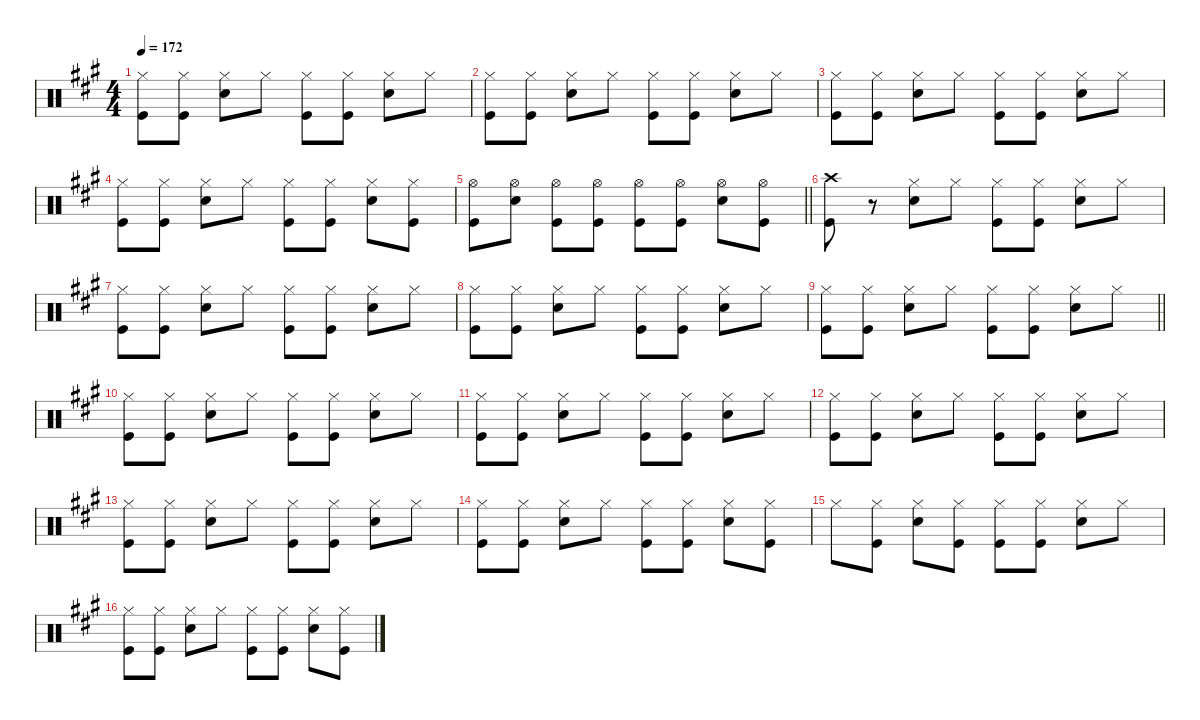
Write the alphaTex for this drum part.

\defaultSystemsLayout 4
\hideDynamics
\bracketExtendMode nobrackets
\singleTrackTrackNamePolicy hidden
\multiTrackTrackNamePolicy hidden
\firstSystemTrackNameMode fullname
\firstSystemTrackNameOrientation horizontal
\otherSystemsTrackNameOrientation horizontal
\track ("Percussion" "drm.") {instrument percussion}
\staff {score}
\articulation defaults
\ts (4 4)
\tempo 172
\clef neutral
\ks a
("Hi-Hat (closed)"{acc forcenatural} "Kick (hit)"{acc forcenatural}).8{dy f beam Down} ("Hi-Hat (closed)"{acc forcenatural} "Kick (hit)"{acc forcenatural}).8{beam Down} ("Hi-Hat (closed)"{acc forcenatural} "Snare (hit) 2"{acc forcenatural}).8{beam Down} "Hi-Hat (closed)"{acc forcenatural}.8{beam Down} ("Hi-Hat (closed)"{acc forcenatural} "Kick (hit)"{acc forcenatural}).8{beam Down} ("Hi-Hat (closed)"{acc forcenatural} "Kick (hit)"{acc forcenatural}).8{beam Down} ("Hi-Hat (closed)"{acc forcenatural} "Snare (hit) 2"{acc forcenatural}).8{beam Down} "Hi-Hat (closed)"{acc forcenatural}.8{beam Down} |
("Hi-Hat (closed)"{acc forcenatural} "Kick (hit)"{acc forcenatural}).8{beam Down} ("Hi-Hat (closed)"{acc forcenatural} "Kick (hit)"{acc forcenatural}).8{beam Down} ("Hi-Hat (closed)"{acc forcenatural} "Snare (hit) 2"{acc forcenatural}).8{beam Down} "Hi-Hat (closed)"{acc forcenatural}.8{beam Down} ("Hi-Hat (closed)"{acc forcenatural} "Kick (hit)"{acc forcenatural}).8{beam Down} ("Hi-Hat (closed)"{acc forcenatural} "Kick (hit)"{acc forcenatural}).8{beam Down} ("Hi-Hat (closed)"{acc forcenatural} "Snare (hit) 2"{acc forcenatural}).8{beam Down} "Hi-Hat (closed)"{acc forcenatural}.8{beam Down} |
("Hi-Hat (closed)"{acc forcenatural} "Kick (hit)"{acc forcenatural}).8{beam Down} ("Hi-Hat (closed)"{acc forcenatural} "Kick (hit)"{acc forcenatural}).8{beam Down} ("Hi-Hat (closed)"{acc forcenatural} "Snare (hit) 2"{acc forcenatural}).8{beam Down} "Hi-Hat (closed)"{acc forcenatural}.8{beam Down} ("Hi-Hat (closed)"{acc forcenatural} "Kick (hit)"{acc forcenatural}).8{beam Down} ("Hi-Hat (closed)"{acc forcenatural} "Kick (hit)"{acc forcenatural}).8{beam Down} ("Hi-Hat (closed)"{acc forcenatural} "Snare (hit) 2"{acc forcenatural}).8{beam Down} "Hi-Hat (closed)"{acc forcenatural}.8{beam Down} |
("Hi-Hat (closed)"{acc forcenatural} "Kick (hit)"{acc forcenatural}).8{beam Down} ("Hi-Hat (closed)"{acc forcenatural} "Kick (hit)"{acc forcenatural}).8{beam Down} ("Hi-Hat (closed)"{acc forcenatural} "Snare (hit) 2"{acc forcenatural}).8{beam Down} "Hi-Hat (closed)"{acc forcenatural}.8{beam Down} ("Hi-Hat (closed)"{acc forcenatural} "Kick (hit)"{acc forcenatural}).8{beam Down} ("Hi-Hat (closed)"{acc forcenatural} "Kick (hit)"{acc forcenatural}).8{beam Down} ("Hi-Hat (closed)"{acc forcenatural} "Snare (hit) 2"{acc forcenatural}).8{beam Down} ("Hi-Hat (closed)"{acc forcenatural} "Kick (hit)"{acc forcenatural}).8{beam Down} |
\barLineRight lightlight
("Hi-Hat (open)"{acc forcenatural} "Kick (hit)"{acc forcenatural}).8{beam Down} ("Hi-Hat (open)"{acc forcenatural} "Snare (hit) 2"{acc forcenatural}).8{beam Down} ("Hi-Hat (open)"{acc forcenatural} "Kick (hit)"{acc forcenatural}).8{beam Down} ("Hi-Hat (open)"{acc forcenatural} "Kick (hit)"{acc forcenatural}).8{beam Down} ("Hi-Hat (open)"{acc forcenatural} "Kick (hit)"{acc forcenatural}).8{beam Down} ("Hi-Hat (open)"{acc forcenatural} "Kick (hit)"{acc forcenatural}).8{beam Down} ("Hi-Hat (open)"{acc forcenatural} "Snare (hit) 2"{acc forcenatural}).8{beam Down} ("Hi-Hat (open)"{acc forcenatural} "Kick (hit)"{acc forcenatural}).8{beam Down} |
("Crash high (hit)"{acc forcenatural} "Kick (hit)"{acc forcenatural}).8{beam Down} r.8{beam Down} ("Hi-Hat (closed)"{acc forcenatural} "Snare (hit) 2"{acc forcenatural}).8{beam Down} "Hi-Hat (closed)"{acc forcenatural}.8{beam Down} ("Hi-Hat (closed)"{acc forcenatural} "Kick (hit)"{acc forcenatural}).8{beam Down} ("Hi-Hat (closed)"{acc forcenatural} "Kick (hit)"{acc forcenatural}).8{beam Down} ("Hi-Hat (closed)"{acc forcenatural} "Snare (hit) 2"{acc forcenatural}).8{beam Down} "Hi-Hat (closed)"{acc forcenatural}.8{beam Down} |
("Hi-Hat (closed)"{acc forcenatural} "Kick (hit)"{acc forcenatural}).8{beam Down} ("Hi-Hat (closed)"{acc forcenatural} "Kick (hit)"{acc forcenatural}).8{beam Down} ("Hi-Hat (closed)"{acc forcenatural} "Snare (hit) 2"{acc forcenatural}).8{beam Down} "Hi-Hat (closed)"{acc forcenatural}.8{beam Down} ("Hi-Hat (closed)"{acc forcenatural} "Kick (hit)"{acc forcenatural}).8{beam Down} ("Hi-Hat (closed)"{acc forcenatural} "Kick (hit)"{acc forcenatural}).8{beam Down} ("Hi-Hat (closed)"{acc forcenatural} "Snare (hit) 2"{acc forcenatural}).8{beam Down} "Hi-Hat (closed)"{acc forcenatural}.8{beam Down} |
("Hi-Hat (closed)"{acc forcenatural} "Kick (hit)"{acc forcenatural}).8{beam Down} ("Hi-Hat (closed)"{acc forcenatural} "Kick (hit)"{acc forcenatural}).8{beam Down} ("Hi-Hat (closed)"{acc forcenatural} "Snare (hit) 2"{acc forcenatural}).8{beam Down} "Hi-Hat (closed)"{acc forcenatural}.8{beam Down} ("Hi-Hat (closed)"{acc forcenatural} "Kick (hit)"{acc forcenatural}).8{beam Down} ("Hi-Hat (closed)"{acc forcenatural} "Kick (hit)"{acc forcenatural}).8{beam Down} ("Hi-Hat (closed)"{acc forcenatural} "Snare (hit) 2"{acc forcenatural}).8{beam Down} "Hi-Hat (closed)"{acc forcenatural}.8{beam Down} |
\barLineRight lightlight
("Hi-Hat (closed)"{acc forcenatural} "Kick (hit)"{acc forcenatural}).8{beam Down} ("Hi-Hat (closed)"{acc forcenatural} "Kick (hit)"{acc forcenatural}).8{beam Down} ("Hi-Hat (closed)"{acc forcenatural} "Snare (hit) 2"{acc forcenatural}).8{beam Down} "Hi-Hat (closed)"{acc forcenatural}.8{beam Down} ("Hi-Hat (closed)"{acc forcenatural} "Kick (hit)"{acc forcenatural}).8{beam Down} ("Hi-Hat (closed)"{acc forcenatural} "Kick (hit)"{acc forcenatural}).8{beam Down} ("Hi-Hat (closed)"{acc forcenatural} "Snare (hit) 2"{acc forcenatural}).8{beam Down} "Hi-Hat (closed)"{acc forcenatural}.8{beam Down} |
("Hi-Hat (closed)"{acc forcenatural} "Kick (hit)"{acc forcenatural}).8{beam Down} ("Hi-Hat (closed)"{acc forcenatural} "Kick (hit)"{acc forcenatural}).8{beam Down} ("Hi-Hat (closed)"{acc forcenatural} "Snare (hit) 2"{acc forcenatural}).8{beam Down} "Hi-Hat (closed)"{acc forcenatural}.8{beam Down} ("Hi-Hat (closed)"{acc forcenatural} "Kick (hit)"{acc forcenatural}).8{beam Down} ("Hi-Hat (closed)"{acc forcenatural} "Kick (hit)"{acc forcenatural}).8{beam Down} ("Hi-Hat (closed)"{acc forcenatural} "Snare (hit) 2"{acc forcenatural}).8{beam Down} "Hi-Hat (closed)"{acc forcenatural}.8{beam Down} |
("Hi-Hat (closed)"{acc forcenatural} "Kick (hit)"{acc forcenatural}).8{beam Down} ("Hi-Hat (closed)"{acc forcenatural} "Kick (hit)"{acc forcenatural}).8{beam Down} ("Hi-Hat (closed)"{acc forcenatural} "Snare (hit) 2"{acc forcenatural}).8{beam Down} "Hi-Hat (closed)"{acc forcenatural}.8{beam Down} ("Hi-Hat (closed)"{acc forcenatural} "Kick (hit)"{acc forcenatural}).8{beam Down} ("Hi-Hat (closed)"{acc forcenatural} "Kick (hit)"{acc forcenatural}).8{beam Down} ("Hi-Hat (closed)"{acc forcenatural} "Snare (hit) 2"{acc forcenatural}).8{beam Down} "Hi-Hat (closed)"{acc forcenatural}.8{beam Down} |
("Hi-Hat (closed)"{acc forcenatural} "Kick (hit)"{acc forcenatural}).8{beam Down} ("Hi-Hat (closed)"{acc forcenatural} "Kick (hit)"{acc forcenatural}).8{beam Down} ("Hi-Hat (closed)"{acc forcenatural} "Snare (hit) 2"{acc forcenatural}).8{beam Down} "Hi-Hat (closed)"{acc forcenatural}.8{beam Down} ("Hi-Hat (closed)"{acc forcenatural} "Kick (hit)"{acc forcenatural}).8{beam Down} ("Hi-Hat (closed)"{acc forcenatural} "Kick (hit)"{acc forcenatural}).8{beam Down} ("Hi-Hat (closed)"{acc forcenatural} "Snare (hit) 2"{acc forcenatural}).8{beam Down} "Hi-Hat (closed)"{acc forcenatural}.8{beam Down} |
("Hi-Hat (closed)"{acc forcenatural} "Kick (hit)"{acc forcenatural}).8{beam Down} ("Hi-Hat (closed)"{acc forcenatural} "Kick (hit)"{acc forcenatural}).8{beam Down} ("Hi-Hat (closed)"{acc forcenatural} "Snare (hit) 2"{acc forcenatural}).8{beam Down} "Hi-Hat (closed)"{acc forcenatural}.8{beam Down} ("Hi-Hat (closed)"{acc forcenatural} "Kick (hit)"{acc forcenatural}).8{beam Down} ("Hi-Hat (closed)"{acc forcenatural} "Kick (hit)"{acc forcenatural}).8{beam Down} ("Hi-Hat (closed)"{acc forcenatural} "Snare (hit) 2"{acc forcenatural}).8{beam Down} "Hi-Hat (closed)"{acc forcenatural}.8{beam Down} |
("Hi-Hat (closed)"{acc forcenatural} "Kick (hit)"{acc forcenatural}).8{beam Down} ("Hi-Hat (closed)"{acc forcenatural} "Kick (hit)"{acc forcenatural}).8{beam Down} ("Hi-Hat (closed)"{acc forcenatural} "Snare (hit) 2"{acc forcenatural}).8{beam Down} "Hi-Hat (closed)"{acc forcenatural}.8{beam Down} ("Hi-Hat (closed)"{acc forcenatural} "Kick (hit)"{acc forcenatural}).8{beam Down} ("Hi-Hat (closed)"{acc forcenatural} "Kick (hit)"{acc forcenatural}).8{beam Down} ("Hi-Hat (closed)"{acc forcenatural} "Snare (hit) 2"{acc forcenatural}).8{beam Down} ("Hi-Hat (closed)"{acc forcenatural} "Kick (hit)"{acc forcenatural}).8{beam Down} |
"Hi-Hat (closed)"{acc forcenatural}.8{beam Down} ("Hi-Hat (closed)"{acc forcenatural} "Kick (hit)"{acc forcenatural}).8{beam Down} ("Hi-Hat (closed)"{acc forcenatural} "Snare (hit) 2"{acc forcenatural}).8{beam Down} ("Hi-Hat (closed)"{acc forcenatural} "Kick (hit)"{acc forcenatural}).8{beam Down} ("Hi-Hat (closed)"{acc forcenatural} "Kick (hit)"{acc forcenatural}).8{beam Down} ("Hi-Hat (closed)"{acc forcenatural} "Kick (hit)"{acc forcenatural}).8{beam Down} ("Hi-Hat (closed)"{acc forcenatural} "Snare (hit) 2"{acc forcenatural}).8{beam Down} "Hi-Hat (closed)"{acc forcenatural}.8{beam Down} |
("Hi-Hat (closed)"{acc forcenatural} "Kick (hit)"{acc forcenatural}).8{beam Down} ("Hi-Hat (closed)"{acc forcenatural} "Kick (hit)"{acc forcenatural}).8{beam Down} ("Hi-Hat (closed)"{acc forcenatural} "Snare (hit) 2"{acc forcenatural}).8{beam Down} "Hi-Hat (closed)"{acc forcenatural}.8{beam Down} ("Hi-Hat (closed)"{acc forcenatural} "Kick (hit)"{acc forcenatural}).8{beam Down} ("Hi-Hat (closed)"{acc forcenatural} "Kick (hit)"{acc forcenatural}).8{beam Down} ("Hi-Hat (closed)"{acc forcenatural} "Snare (hit) 2"{acc forcenatural}).8{beam Down} ("Hi-Hat (closed)"{acc forcenatural} "Kick (hit)"{acc forcenatural}).8{beam Down}
